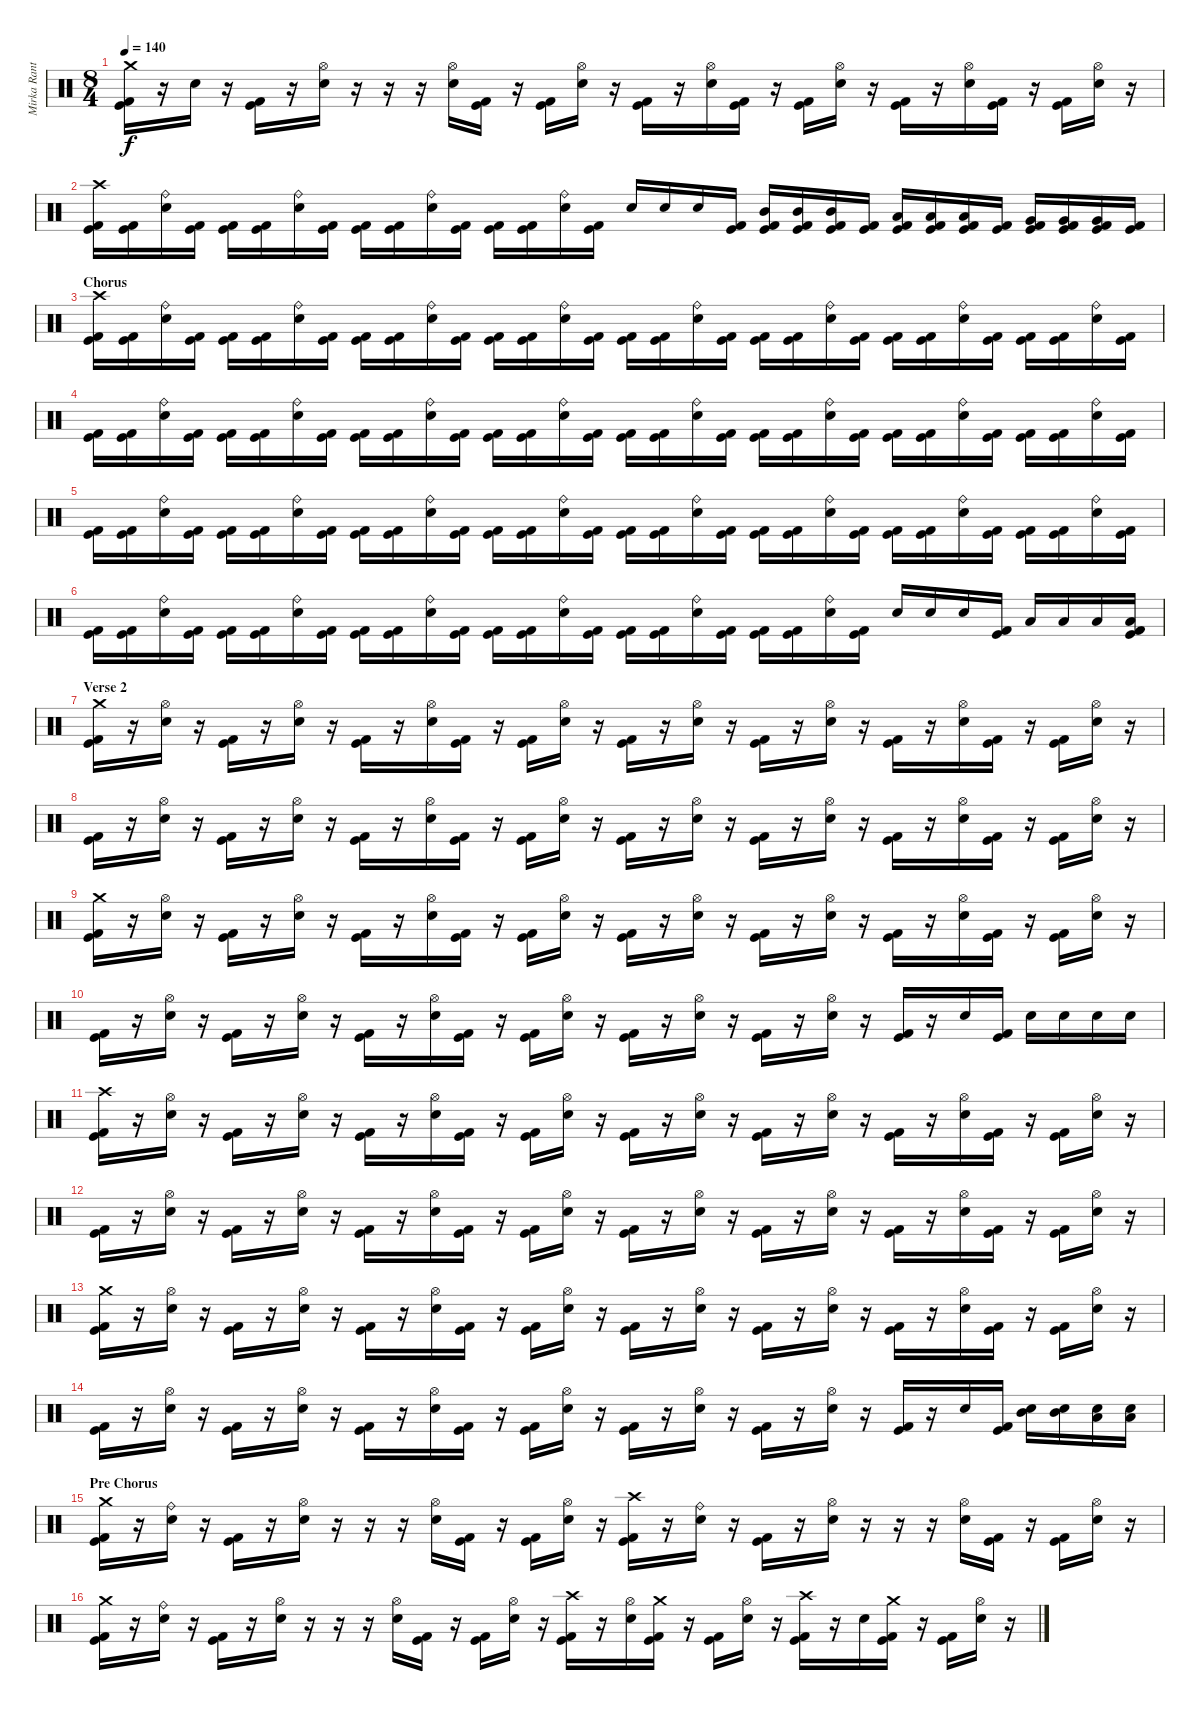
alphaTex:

\track ("Mirka Rantanen" "Mirka Rant") {instrument percussion}
\staff {score}
\articulation defaults
\ts (8 4)
\tempo 140
\clef neutral
\ks c
("Crash medium (hit)" "Kick (hit) 2" "Kick (hit)").16{dy f} r.16 "Electric Snare (hit)".16 r.16 ("Kick (hit) 2" "Kick (hit)").16 r.16 ("Hi-Hat (open)" "Electric Snare (hit)").16 r.16 r.16 r.16 ("Hi-Hat (open)" "Electric Snare (hit)").16 ("Kick (hit) 2" "Kick (hit)").16 r.16 ("Kick (hit) 2" "Kick (hit)").16 ("Hi-Hat (open)" "Electric Snare (hit)").16 r.16 ("Kick (hit) 2" "Kick (hit)").16 r.16 ("Hi-Hat (open)" "Electric Snare (hit)").16 ("Kick (hit) 2" "Kick (hit)").16 r.16 ("Kick (hit) 2" "Kick (hit)").16 ("Hi-Hat (open)" "Electric Snare (hit)").16 r.16 ("Kick (hit) 2" "Kick (hit)").16 r.16 ("Hi-Hat (open)" "Electric Snare (hit)").16 ("Kick (hit) 2" "Kick (hit)").16 r.16 ("Kick (hit) 2" "Kick (hit)").16 ("Hi-Hat (open)" "Electric Snare (hit)").16 r.16 |
("Crash high (hit)" "Kick (hit) 2" "Kick (hit)").16 ("Kick (hit) 2" "Kick (hit)").16 ("Ride (bell)" "Electric Snare (hit)").16 ("Kick (hit) 2" "Kick (hit)").16 ("Kick (hit) 2" "Kick (hit)").16 ("Kick (hit) 2" "Kick (hit)").16 ("Ride (bell)" "Electric Snare (hit)").16 ("Kick (hit) 2" "Kick (hit)").16 ("Kick (hit) 2" "Kick (hit)").16 ("Kick (hit) 2" "Kick (hit)").16 ("Ride (bell)" "Electric Snare (hit)").16 ("Kick (hit) 2" "Kick (hit)").16 ("Kick (hit) 2" "Kick (hit)").16 ("Kick (hit) 2" "Kick (hit)").16 ("Ride (bell)" "Electric Snare (hit)").16 ("Kick (hit) 2" "Kick (hit)").16 "Electric Snare (hit)".16 "Electric Snare (hit)".16 "Electric Snare (hit)".16 ("Kick (hit) 2" "Kick (hit)").16 ("Mid Tom (hit)" "Kick (hit) 2" "Kick (hit)").16 ("Mid Tom (hit)" "Kick (hit) 2" "Kick (hit)").16 ("Mid Tom (hit)" "Kick (hit) 2" "Kick (hit)").16 ("Kick (hit) 2" "Kick (hit)").16 ("Low Tom (hit)" "Kick (hit) 2" "Kick (hit)").16 ("Low Tom (hit)" "Kick (hit) 2" "Kick (hit)").16 ("Low Tom (hit)" "Kick (hit) 2" "Kick (hit)").16 ("Kick (hit) 2" "Kick (hit)").16 ("Very Low Tom (hit)" "Kick (hit) 2" "Kick (hit)").16 ("Very Low Tom (hit)" "Kick (hit) 2" "Kick (hit)").16 ("Very Low Tom (hit)" "Kick (hit)" "Kick (hit) 2").16 ("Kick (hit) 2" "Kick (hit)").16 |
\section ("" "Chorus")
("Crash high (hit)" "Kick (hit) 2" "Kick (hit)").16 ("Kick (hit) 2" "Kick (hit)").16 ("Ride (bell)" "Electric Snare (hit)").16 ("Kick (hit) 2" "Kick (hit)").16 ("Kick (hit) 2" "Kick (hit)").16 ("Kick (hit) 2" "Kick (hit)").16 ("Ride (bell)" "Electric Snare (hit)").16 ("Kick (hit) 2" "Kick (hit)").16 ("Kick (hit) 2" "Kick (hit)").16 ("Kick (hit) 2" "Kick (hit)").16 ("Ride (bell)" "Electric Snare (hit)").16 ("Kick (hit) 2" "Kick (hit)").16 ("Kick (hit) 2" "Kick (hit)").16 ("Kick (hit) 2" "Kick (hit)").16 ("Ride (bell)" "Electric Snare (hit)").16 ("Kick (hit) 2" "Kick (hit)").16 ("Kick (hit) 2" "Kick (hit)").16 ("Kick (hit) 2" "Kick (hit)").16 ("Ride (bell)" "Electric Snare (hit)").16 ("Kick (hit) 2" "Kick (hit)").16 ("Kick (hit) 2" "Kick (hit)").16 ("Kick (hit) 2" "Kick (hit)").16 ("Ride (bell)" "Electric Snare (hit)").16 ("Kick (hit) 2" "Kick (hit)").16 ("Kick (hit) 2" "Kick (hit)").16 ("Kick (hit) 2" "Kick (hit)").16 ("Ride (bell)" "Electric Snare (hit)").16 ("Kick (hit) 2" "Kick (hit)").16 ("Kick (hit) 2" "Kick (hit)").16 ("Kick (hit) 2" "Kick (hit)").16 ("Ride (bell)" "Electric Snare (hit)").16 ("Kick (hit) 2" "Kick (hit)").16 |
("Kick (hit) 2" "Kick (hit)").16 ("Kick (hit) 2" "Kick (hit)").16 ("Ride (bell)" "Electric Snare (hit)").16 ("Kick (hit) 2" "Kick (hit)").16 ("Kick (hit) 2" "Kick (hit)").16 ("Kick (hit) 2" "Kick (hit)").16 ("Ride (bell)" "Electric Snare (hit)").16 ("Kick (hit) 2" "Kick (hit)").16 ("Kick (hit) 2" "Kick (hit)").16 ("Kick (hit) 2" "Kick (hit)").16 ("Ride (bell)" "Electric Snare (hit)").16 ("Kick (hit) 2" "Kick (hit)").16 ("Kick (hit) 2" "Kick (hit)").16 ("Kick (hit) 2" "Kick (hit)").16 ("Ride (bell)" "Electric Snare (hit)").16 ("Kick (hit) 2" "Kick (hit)").16 ("Kick (hit) 2" "Kick (hit)").16 ("Kick (hit) 2" "Kick (hit)").16 ("Ride (bell)" "Electric Snare (hit)").16 ("Kick (hit) 2" "Kick (hit)").16 ("Kick (hit) 2" "Kick (hit)").16 ("Kick (hit) 2" "Kick (hit)").16 ("Ride (bell)" "Electric Snare (hit)").16 ("Kick (hit) 2" "Kick (hit)").16 ("Kick (hit) 2" "Kick (hit)").16 ("Kick (hit) 2" "Kick (hit)").16 ("Ride (bell)" "Electric Snare (hit)").16 ("Kick (hit) 2" "Kick (hit)").16 ("Kick (hit) 2" "Kick (hit)").16 ("Kick (hit) 2" "Kick (hit)").16 ("Ride (bell)" "Electric Snare (hit)").16 ("Kick (hit) 2" "Kick (hit)").16 |
("Kick (hit) 2" "Kick (hit)").16 ("Kick (hit) 2" "Kick (hit)").16 ("Ride (bell)" "Electric Snare (hit)").16 ("Kick (hit) 2" "Kick (hit)").16 ("Kick (hit) 2" "Kick (hit)").16 ("Kick (hit) 2" "Kick (hit)").16 ("Ride (bell)" "Electric Snare (hit)").16 ("Kick (hit) 2" "Kick (hit)").16 ("Kick (hit) 2" "Kick (hit)").16 ("Kick (hit) 2" "Kick (hit)").16 ("Ride (bell)" "Electric Snare (hit)").16 ("Kick (hit) 2" "Kick (hit)").16 ("Kick (hit) 2" "Kick (hit)").16 ("Kick (hit) 2" "Kick (hit)").16 ("Ride (bell)" "Electric Snare (hit)").16 ("Kick (hit) 2" "Kick (hit)").16 ("Kick (hit) 2" "Kick (hit)").16 ("Kick (hit) 2" "Kick (hit)").16 ("Ride (bell)" "Electric Snare (hit)").16 ("Kick (hit) 2" "Kick (hit)").16 ("Kick (hit) 2" "Kick (hit)").16 ("Kick (hit) 2" "Kick (hit)").16 ("Ride (bell)" "Electric Snare (hit)").16 ("Kick (hit) 2" "Kick (hit)").16 ("Kick (hit) 2" "Kick (hit)").16 ("Kick (hit) 2" "Kick (hit)").16 ("Ride (bell)" "Electric Snare (hit)").16 ("Kick (hit) 2" "Kick (hit)").16 ("Kick (hit) 2" "Kick (hit)").16 ("Kick (hit) 2" "Kick (hit)").16 ("Ride (bell)" "Electric Snare (hit)").16 ("Kick (hit) 2" "Kick (hit)").16 |
("Kick (hit) 2" "Kick (hit)").16 ("Kick (hit) 2" "Kick (hit)").16 ("Ride (bell)" "Electric Snare (hit)").16 ("Kick (hit) 2" "Kick (hit)").16 ("Kick (hit) 2" "Kick (hit)").16 ("Kick (hit) 2" "Kick (hit)").16 ("Ride (bell)" "Electric Snare (hit)").16 ("Kick (hit) 2" "Kick (hit)").16 ("Kick (hit) 2" "Kick (hit)").16 ("Kick (hit) 2" "Kick (hit)").16 ("Ride (bell)" "Electric Snare (hit)").16 ("Kick (hit) 2" "Kick (hit)").16 ("Kick (hit) 2" "Kick (hit)").16 ("Kick (hit) 2" "Kick (hit)").16 ("Ride (bell)" "Electric Snare (hit)").16 ("Kick (hit) 2" "Kick (hit)").16 ("Kick (hit) 2" "Kick (hit)").16 ("Kick (hit) 2" "Kick (hit)").16 ("Ride (bell)" "Electric Snare (hit)").16 ("Kick (hit) 2" "Kick (hit)").16 ("Kick (hit) 2" "Kick (hit)").16 ("Kick (hit) 2" "Kick (hit)").16 ("Ride (bell)" "Electric Snare (hit)").16 ("Kick (hit) 2" "Kick (hit)").16 "Electric Snare (hit)".16 "Electric Snare (hit)".16 "Electric Snare (hit)".16 ("Kick (hit) 2" "Kick (hit)").16 "Low Tom (hit)".16 "Low Tom (hit)".16 "Low Tom (hit)".16 ("Low Tom (hit)" "Kick (hit) 2" "Kick (hit)").16 |
\section ("" "Verse 2")
("Crash medium (hit)" "Kick (hit) 2" "Kick (hit)").16 r.16 ("Hi-Hat (open)" "Electric Snare (hit)").16 r.16 ("Kick (hit) 2" "Kick (hit)").16 r.16 ("Hi-Hat (open)" "Electric Snare (hit)").16 r.16 ("Kick (hit) 2" "Kick (hit)").16 r.16 ("Hi-Hat (open)" "Electric Snare (hit)").16 ("Kick (hit) 2" "Kick (hit)").16 r.16 ("Kick (hit) 2" "Kick (hit)").16 ("Hi-Hat (open)" "Electric Snare (hit)").16 r.16 ("Kick (hit) 2" "Kick (hit)").16 r.16 ("Hi-Hat (open)" "Electric Snare (hit)").16 r.16 ("Kick (hit) 2" "Kick (hit)").16 r.16 ("Hi-Hat (open)" "Electric Snare (hit)").16 r.16 ("Kick (hit) 2" "Kick (hit)").16 r.16 ("Hi-Hat (open)" "Electric Snare (hit)").16 ("Kick (hit) 2" "Kick (hit)").16 r.16 ("Kick (hit) 2" "Kick (hit)").16 ("Hi-Hat (open)" "Electric Snare (hit)").16 r.16 |
("Kick (hit) 2" "Kick (hit)").16 r.16 ("Hi-Hat (open)" "Electric Snare (hit)").16 r.16 ("Kick (hit) 2" "Kick (hit)").16 r.16 ("Hi-Hat (open)" "Electric Snare (hit)").16 r.16 ("Kick (hit) 2" "Kick (hit)").16 r.16 ("Hi-Hat (open)" "Electric Snare (hit)").16 ("Kick (hit) 2" "Kick (hit)").16 r.16 ("Kick (hit) 2" "Kick (hit)").16 ("Hi-Hat (open)" "Electric Snare (hit)").16 r.16 ("Kick (hit) 2" "Kick (hit)").16 r.16 ("Hi-Hat (open)" "Electric Snare (hit)").16 r.16 ("Kick (hit) 2" "Kick (hit)").16 r.16 ("Hi-Hat (open)" "Electric Snare (hit)").16 r.16 ("Kick (hit) 2" "Kick (hit)").16 r.16 ("Hi-Hat (open)" "Electric Snare (hit)").16 ("Kick (hit) 2" "Kick (hit)").16 r.16 ("Kick (hit) 2" "Kick (hit)").16 ("Hi-Hat (open)" "Electric Snare (hit)").16 r.16 |
("Crash medium (hit)" "Kick (hit) 2" "Kick (hit)").16 r.16 ("Hi-Hat (open)" "Electric Snare (hit)").16 r.16 ("Kick (hit) 2" "Kick (hit)").16 r.16 ("Hi-Hat (open)" "Electric Snare (hit)").16 r.16 ("Kick (hit) 2" "Kick (hit)").16 r.16 ("Hi-Hat (open)" "Electric Snare (hit)").16 ("Kick (hit) 2" "Kick (hit)").16 r.16 ("Kick (hit) 2" "Kick (hit)").16 ("Hi-Hat (open)" "Electric Snare (hit)").16 r.16 ("Kick (hit) 2" "Kick (hit)").16 r.16 ("Hi-Hat (open)" "Electric Snare (hit)").16 r.16 ("Kick (hit) 2" "Kick (hit)").16 r.16 ("Hi-Hat (open)" "Electric Snare (hit)").16 r.16 ("Kick (hit) 2" "Kick (hit)").16 r.16 ("Hi-Hat (open)" "Electric Snare (hit)").16 ("Kick (hit) 2" "Kick (hit)").16 r.16 ("Kick (hit) 2" "Kick (hit)").16 ("Hi-Hat (open)" "Electric Snare (hit)").16 r.16 |
("Kick (hit) 2" "Kick (hit)").16 r.16 ("Hi-Hat (open)" "Electric Snare (hit)").16 r.16 ("Kick (hit) 2" "Kick (hit)").16 r.16 ("Hi-Hat (open)" "Electric Snare (hit)").16 r.16 ("Kick (hit) 2" "Kick (hit)").16 r.16 ("Hi-Hat (open)" "Electric Snare (hit)").16 ("Kick (hit) 2" "Kick (hit)").16 r.16 ("Kick (hit) 2" "Kick (hit)").16 ("Hi-Hat (open)" "Electric Snare (hit)").16 r.16 ("Kick (hit) 2" "Kick (hit)").16 r.16 ("Hi-Hat (open)" "Electric Snare (hit)").16 r.16 ("Kick (hit) 2" "Kick (hit)").16 r.16 ("Hi-Hat (open)" "Electric Snare (hit)").16 r.16 ("Kick (hit) 2" "Kick (hit)").16 r.16 "Electric Snare (hit)".16 ("Kick (hit) 2" "Kick (hit)").16 "Electric Snare (hit)".16 "Electric Snare (hit)".16 "Electric Snare (hit)".16 "Electric Snare (hit)".16 |
("Crash high (hit)" "Kick (hit) 2" "Kick (hit)").16 r.16 ("Hi-Hat (open)" "Electric Snare (hit)").16 r.16 ("Kick (hit) 2" "Kick (hit)").16 r.16 ("Hi-Hat (open)" "Electric Snare (hit)").16 r.16 ("Kick (hit) 2" "Kick (hit)").16 r.16 ("Hi-Hat (open)" "Electric Snare (hit)").16 ("Kick (hit) 2" "Kick (hit)").16 r.16 ("Kick (hit) 2" "Kick (hit)").16 ("Hi-Hat (open)" "Electric Snare (hit)").16 r.16 ("Kick (hit) 2" "Kick (hit)").16 r.16 ("Hi-Hat (open)" "Electric Snare (hit)").16 r.16 ("Kick (hit) 2" "Kick (hit)").16 r.16 ("Hi-Hat (open)" "Electric Snare (hit)").16 r.16 ("Kick (hit) 2" "Kick (hit)").16 r.16 ("Hi-Hat (open)" "Electric Snare (hit)").16 ("Kick (hit) 2" "Kick (hit)").16 r.16 ("Kick (hit) 2" "Kick (hit)").16 ("Hi-Hat (open)" "Electric Snare (hit)").16 r.16 |
("Kick (hit) 2" "Kick (hit)").16 r.16 ("Hi-Hat (open)" "Electric Snare (hit)").16 r.16 ("Kick (hit) 2" "Kick (hit)").16 r.16 ("Hi-Hat (open)" "Electric Snare (hit)").16 r.16 ("Kick (hit) 2" "Kick (hit)").16 r.16 ("Hi-Hat (open)" "Electric Snare (hit)").16 ("Kick (hit) 2" "Kick (hit)").16 r.16 ("Kick (hit) 2" "Kick (hit)").16 ("Hi-Hat (open)" "Electric Snare (hit)").16 r.16 ("Kick (hit) 2" "Kick (hit)").16 r.16 ("Hi-Hat (open)" "Electric Snare (hit)").16 r.16 ("Kick (hit) 2" "Kick (hit)").16 r.16 ("Hi-Hat (open)" "Electric Snare (hit)").16 r.16 ("Kick (hit) 2" "Kick (hit)").16 r.16 ("Hi-Hat (open)" "Electric Snare (hit)").16 ("Kick (hit) 2" "Kick (hit)").16 r.16 ("Kick (hit) 2" "Kick (hit)").16 ("Hi-Hat (open)" "Electric Snare (hit)").16 r.16 |
("Crash medium (hit)" "Kick (hit) 2" "Kick (hit)").16 r.16 ("Hi-Hat (open)" "Electric Snare (hit)").16 r.16 ("Kick (hit) 2" "Kick (hit)").16 r.16 ("Hi-Hat (open)" "Electric Snare (hit)").16 r.16 ("Kick (hit) 2" "Kick (hit)").16 r.16 ("Hi-Hat (open)" "Electric Snare (hit)").16 ("Kick (hit) 2" "Kick (hit)").16 r.16 ("Kick (hit) 2" "Kick (hit)").16 ("Hi-Hat (open)" "Electric Snare (hit)").16 r.16 ("Kick (hit) 2" "Kick (hit)").16 r.16 ("Hi-Hat (open)" "Electric Snare (hit)").16 r.16 ("Kick (hit) 2" "Kick (hit)").16 r.16 ("Hi-Hat (open)" "Electric Snare (hit)").16 r.16 ("Kick (hit) 2" "Kick (hit)").16 r.16 ("Hi-Hat (open)" "Electric Snare (hit)").16 ("Kick (hit) 2" "Kick (hit)").16 r.16 ("Kick (hit) 2" "Kick (hit)").16 ("Hi-Hat (open)" "Electric Snare (hit)").16 r.16 |
("Kick (hit) 2" "Kick (hit)").16 r.16 ("Hi-Hat (open)" "Electric Snare (hit)").16 r.16 ("Kick (hit) 2" "Kick (hit)").16 r.16 ("Hi-Hat (open)" "Electric Snare (hit)").16 r.16 ("Kick (hit) 2" "Kick (hit)").16 r.16 ("Hi-Hat (open)" "Electric Snare (hit)").16 ("Kick (hit) 2" "Kick (hit)").16 r.16 ("Kick (hit) 2" "Kick (hit)").16 ("Hi-Hat (open)" "Electric Snare (hit)").16 r.16 ("Kick (hit) 2" "Kick (hit)").16 r.16 ("Hi-Hat (open)" "Electric Snare (hit)").16 r.16 ("Kick (hit) 2" "Kick (hit)").16 r.16 ("Hi-Hat (open)" "Electric Snare (hit)").16 r.16 ("Kick (hit) 2" "Kick (hit)").16 r.16 "Electric Snare (hit)".16 ("Kick (hit) 2" "Kick (hit)").16 ("Mid Tom (hit)" "Electric Snare (hit)").16 ("Mid Tom (hit)" "Electric Snare (hit)").16 ("Low Tom (hit)" "Electric Snare (hit)").16 ("Low Tom (hit)" "Electric Snare (hit)").16 |
\section ("" "Pre Chorus")
("Crash medium (hit)" "Kick (hit) 2" "Kick (hit)").16 r.16 ("Ride (bell)" "Electric Snare (hit)").16 r.16 ("Kick (hit) 2" "Kick (hit)").16 r.16 ("Hi-Hat (open)" "Electric Snare (hit)").16 r.16 r.16 r.16 ("Hi-Hat (open)" "Electric Snare (hit)").16 ("Kick (hit) 2" "Kick (hit)").16 r.16 ("Kick (hit) 2" "Kick (hit)").16 ("Hi-Hat (open)" "Electric Snare (hit)").16 r.16 ("Crash high (hit)" "Kick (hit) 2" "Kick (hit)").16 r.16 ("Ride (bell)" "Electric Snare (hit)").16 r.16 ("Kick (hit) 2" "Kick (hit)").16 r.16 ("Hi-Hat (open)" "Electric Snare (hit)").16 r.16 r.16 r.16 ("Hi-Hat (open)" "Electric Snare (hit)").16 ("Kick (hit) 2" "Kick (hit)").16 r.16 ("Kick (hit) 2" "Kick (hit)").16 ("Hi-Hat (open)" "Electric Snare (hit)").16 r.16 |
("Crash medium (hit)" "Kick (hit) 2" "Kick (hit)").16 r.16 ("Ride (bell)" "Electric Snare (hit)").16 r.16 ("Kick (hit) 2" "Kick (hit)").16 r.16 ("Hi-Hat (open)" "Electric Snare (hit)").16 r.16 r.16 r.16 ("Hi-Hat (open)" "Electric Snare (hit)").16 ("Kick (hit) 2" "Kick (hit)").16 r.16 ("Kick (hit) 2" "Kick (hit)").16 ("Hi-Hat (open)" "Electric Snare (hit)").16 r.16 ("Crash high (hit)" "Kick (hit) 2" "Kick (hit)").16 r.16 ("Hi-Hat (open)" "Electric Snare (hit)").16 ("Crash medium (hit)" "Kick (hit) 2" "Kick (hit)").16 r.16 ("Kick (hit) 2" "Kick (hit)").16 ("Hi-Hat (open)" "Electric Snare (hit)").16 r.16 ("Crash high (hit)" "Kick (hit) 2" "Kick (hit)").16 r.16 "Electric Snare (hit)".16 ("Crash medium (hit)" "Kick (hit) 2" "Kick (hit)").16 r.16 ("Kick (hit) 2" "Kick (hit)").16 ("Hi-Hat (open)" "Electric Snare (hit)").16 r.16
